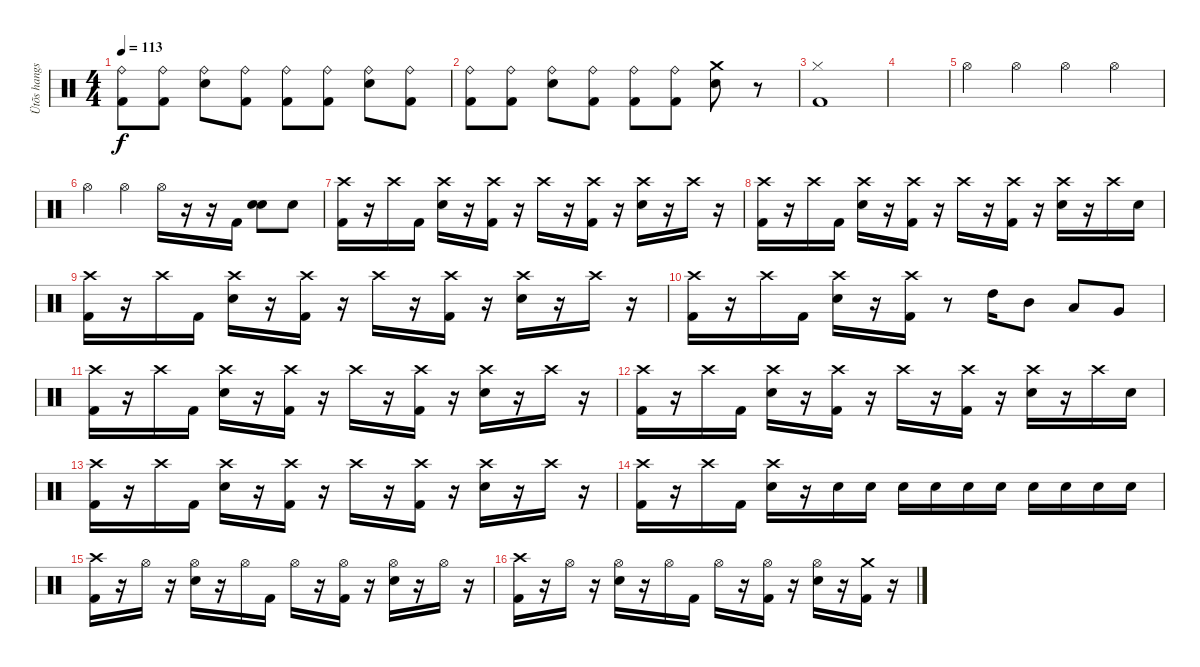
\track ("Ütõs hangszer" "Ütõs hangs") {instrument percussion}
\staff {score}
\articulation defaults
\ts (4 4)
\tempo 113
\clef neutral
\ks c
("Ride (bell)" "Kick (hit) 2").8{dy f} ("Ride (bell)" "Kick (hit) 2").8 ("Ride (bell)" "Electric Snare (hit)").8 ("Ride (bell)" "Kick (hit) 2").8 ("Ride (bell)" "Kick (hit) 2").8 ("Ride (bell)" "Kick (hit) 2").8 ("Ride (bell)" "Electric Snare (hit)").8 ("Ride (bell)" "Kick (hit) 2").8 |
("Ride (bell)" "Kick (hit) 2").8 ("Ride (bell)" "Kick (hit) 2").8 ("Ride (bell)" "Electric Snare (hit)").8 ("Ride (bell)" "Kick (hit) 2").8 ("Ride (bell)" "Kick (hit) 2").8 ("Ride (bell)" "Kick (hit) 2").8 ("Crash medium (hit)" "Electric Snare (hit)").8 r.8 |
("Hi-Hat (closed)" "Kick (hit) 2").1 |
|
"Hi-Hat (open)".4 "Hi-Hat (open)".4 "Hi-Hat (open)".4 "Hi-Hat (open)".4 |
"Hi-Hat (open)".4 "Hi-Hat (open)".4 "Hi-Hat (open)".16 r.16 r.16 "Kick (hit) 2".16 ("Electric Snare (hit)" "Electric Snare (hit)").8 "Electric Snare (hit)".8 |
("Crash high (hit)" "Kick (hit) 2").16 r.16 "Crash high (hit)".16 "Kick (hit) 2".16 ("Crash high (hit)" "Electric Snare (hit)").16 r.16 ("Crash high (hit)" "Kick (hit) 2").16 r.16 "Crash high (hit)".16 r.16 ("Crash high (hit)" "Kick (hit) 2").16 r.16 ("Crash high (hit)" "Electric Snare (hit)").16 r.16 "Crash high (hit)".16 r.16 |
("Crash high (hit)" "Kick (hit) 2").16 r.16 "Crash high (hit)".16 "Kick (hit) 2".16 ("Crash high (hit)" "Electric Snare (hit)").16 r.16 ("Crash high (hit)" "Kick (hit) 2").16 r.16 "Crash high (hit)".16 r.16 ("Crash high (hit)" "Kick (hit) 2").16 r.16 ("Crash high (hit)" "Electric Snare (hit)").16 r.16 "Crash high (hit)".16 "Electric Snare (hit)".16 |
("Crash high (hit)" "Kick (hit) 2").16 r.16 "Crash high (hit)".16 "Kick (hit) 2".16 ("Crash high (hit)" "Electric Snare (hit)").16 r.16 ("Crash high (hit)" "Kick (hit) 2").16 r.16 "Crash high (hit)".16 r.16 ("Crash high (hit)" "Kick (hit) 2").16 r.16 ("Crash high (hit)" "Electric Snare (hit)").16 r.16 "Crash high (hit)".16 r.16 |
("Crash high (hit)" "Kick (hit) 2").16 r.16 "Crash high (hit)".16 "Kick (hit) 2".16 ("Crash high (hit)" "Electric Snare (hit)").16 r.16 ("Crash high (hit)" "Kick (hit) 2").16 r.8 "High Tom (hit)".16 "Mid Tom (hit)".8 "Low Tom (hit)".8 "Very Low Tom (hit)".8 |
("Crash high (hit)" "Kick (hit) 2").16 r.16 "Crash high (hit)".16 "Kick (hit) 2".16 ("Crash high (hit)" "Electric Snare (hit)").16 r.16 ("Crash high (hit)" "Kick (hit) 2").16 r.16 "Crash high (hit)".16 r.16 ("Crash high (hit)" "Kick (hit) 2").16 r.16 ("Crash high (hit)" "Electric Snare (hit)").16 r.16 "Crash high (hit)".16 r.16 |
("Crash high (hit)" "Kick (hit) 2").16 r.16 "Crash high (hit)".16 "Kick (hit) 2".16 ("Crash high (hit)" "Electric Snare (hit)").16 r.16 ("Crash high (hit)" "Kick (hit) 2").16 r.16 "Crash high (hit)".16 r.16 ("Crash high (hit)" "Kick (hit) 2").16 r.16 ("Crash high (hit)" "Electric Snare (hit)").16 r.16 "Crash high (hit)".16 "Electric Snare (hit)".16 |
("Crash high (hit)" "Kick (hit) 2").16 r.16 "Crash high (hit)".16 "Kick (hit) 2".16 ("Crash high (hit)" "Electric Snare (hit)").16 r.16 ("Crash high (hit)" "Kick (hit) 2").16 r.16 "Crash high (hit)".16 r.16 ("Crash high (hit)" "Kick (hit) 2").16 r.16 ("Crash high (hit)" "Electric Snare (hit)").16 r.16 "Crash high (hit)".16 r.16 |
("Crash high (hit)" "Kick (hit) 2").16 r.16 "Crash high (hit)".16 "Kick (hit) 2".16 ("Crash high (hit)" "Electric Snare (hit)").16 r.16 "Electric Snare (hit)".16 "Electric Snare (hit)".16 "Electric Snare (hit)".16 "Electric Snare (hit)".16 "Electric Snare (hit)".16 "Electric Snare (hit)".16 "Electric Snare (hit)".16 "Electric Snare (hit)".16 "Electric Snare (hit)".16 "Electric Snare (hit)".16 |
("Crash high (hit)" "Kick (hit) 2").16 r.16 "Hi-Hat (open)".16 r.16 ("Hi-Hat (open)" "Electric Snare (hit)").16 r.16 "Hi-Hat (open)".16 "Kick (hit) 2".16 "Hi-Hat (open)".16 r.16 ("Hi-Hat (open)" "Kick (hit) 2").16 r.16 ("Hi-Hat (open)" "Electric Snare (hit)").16 r.16 "Hi-Hat (open)".16 r.16 |
("Crash high (hit)" "Kick (hit) 2").16 r.16 "Hi-Hat (open)".16 r.16 ("Hi-Hat (open)" "Electric Snare (hit)").16 r.16 "Hi-Hat (open)".16 "Kick (hit) 2".16 "Hi-Hat (open)".16 r.16 ("Hi-Hat (open)" "Kick (hit) 2").16 r.16 ("Hi-Hat (open)" "Electric Snare (hit)").16 r.16 ("Crash medium (hit)" "Kick (hit) 2").16 r.16
